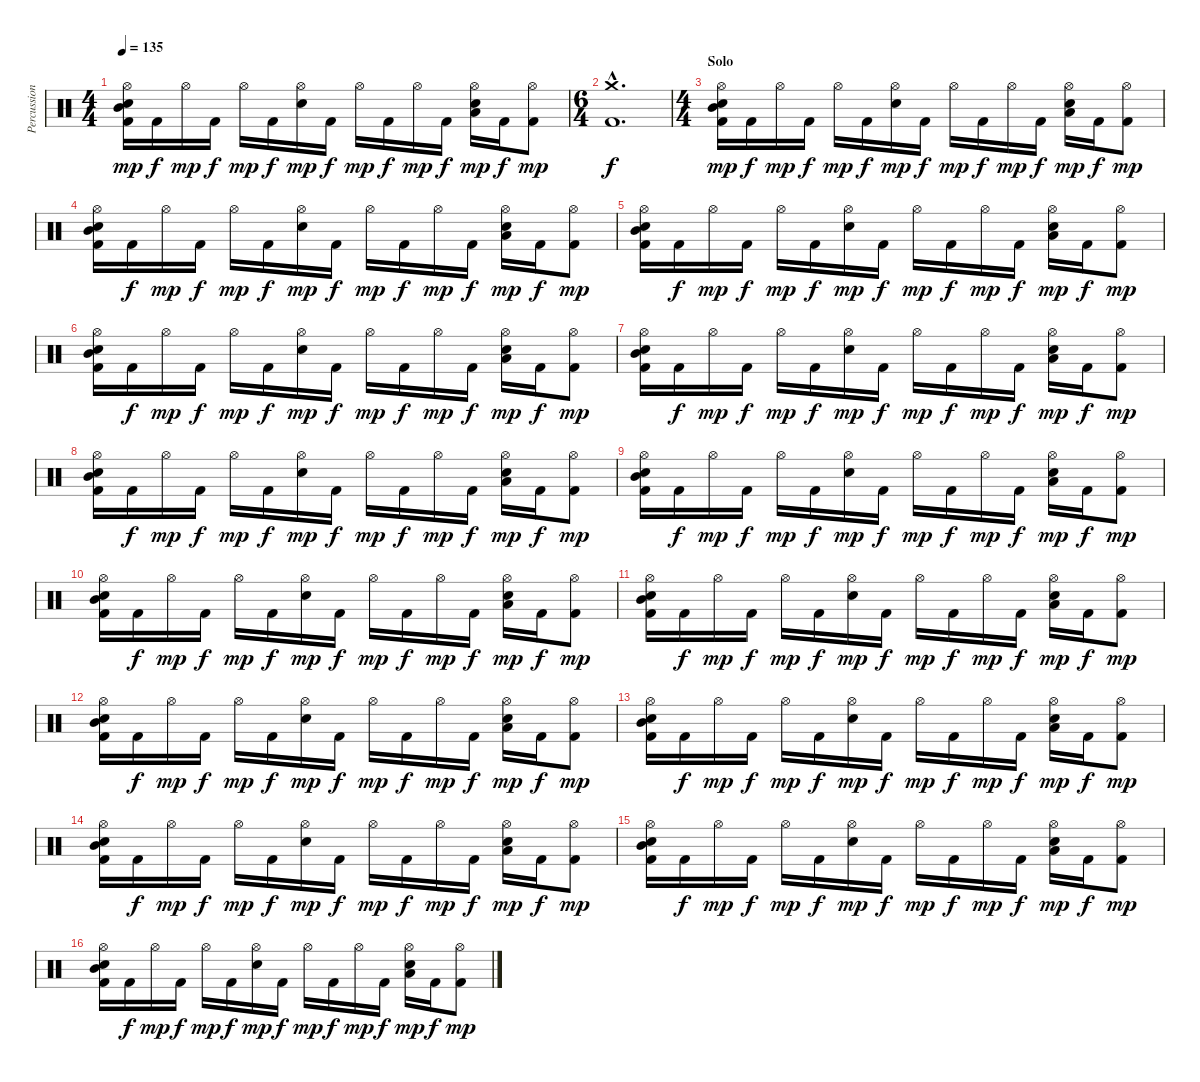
\track ("Percussions" "Percussion") {instrument percussion}
\staff {score}
\articulation defaults
\ts (4 4)
\tempo 135
\clef neutral
\ks c
("Hi-Hat (open)" "Electric Snare (hit)" "Mid Tom (hit)" "Kick (hit) 2").16{dy mp} "Kick (hit) 2".16{dy f} "Hi-Hat (open)".16{dy mp} "Kick (hit) 2".16{dy f} "Hi-Hat (open)".16{dy mp} "Kick (hit) 2".16{dy f} ("Hi-Hat (open)" "Electric Snare (hit)").16{dy mp} "Kick (hit) 2".16{dy f} "Hi-Hat (open)".16{dy mp} "Kick (hit) 2".16{dy f} "Hi-Hat (open)".16{dy mp} "Kick (hit) 2".16{dy f} ("Hi-Hat (open)" "Electric Snare (hit)" "Low Tom (hit)").16{dy mp} "Kick (hit) 2".16{dy f} ("Hi-Hat (open)" "Kick (hit) 2").8{dy mp} |
\ts (6 4)
("Crash medium (hit)"{hac} "Kick (hit) 2"{hac}).1{d dy f} |
\ts (4 4)
\section ("" "Solo")
("Hi-Hat (open)" "Electric Snare (hit)" "Mid Tom (hit)" "Kick (hit) 2").16{dy mp} "Kick (hit) 2".16{dy f} "Hi-Hat (open)".16{dy mp} "Kick (hit) 2".16{dy f} "Hi-Hat (open)".16{dy mp} "Kick (hit) 2".16{dy f} ("Hi-Hat (open)" "Electric Snare (hit)").16{dy mp} "Kick (hit) 2".16{dy f} "Hi-Hat (open)".16{dy mp} "Kick (hit) 2".16{dy f} "Hi-Hat (open)".16{dy mp} "Kick (hit) 2".16{dy f} ("Hi-Hat (open)" "Electric Snare (hit)" "Low Tom (hit)").16{dy mp} "Kick (hit) 2".16{dy f} ("Hi-Hat (open)" "Kick (hit) 2").8{dy mp} |
("Hi-Hat (open)" "Electric Snare (hit)" "Mid Tom (hit)" "Kick (hit) 2").16 "Kick (hit) 2".16{dy f} "Hi-Hat (open)".16{dy mp} "Kick (hit) 2".16{dy f} "Hi-Hat (open)".16{dy mp} "Kick (hit) 2".16{dy f} ("Hi-Hat (open)" "Electric Snare (hit)").16{dy mp} "Kick (hit) 2".16{dy f} "Hi-Hat (open)".16{dy mp} "Kick (hit) 2".16{dy f} "Hi-Hat (open)".16{dy mp} "Kick (hit) 2".16{dy f} ("Hi-Hat (open)" "Electric Snare (hit)" "Low Tom (hit)").16{dy mp} "Kick (hit) 2".16{dy f} ("Hi-Hat (open)" "Kick (hit) 2").8{dy mp} |
("Hi-Hat (open)" "Electric Snare (hit)" "Mid Tom (hit)" "Kick (hit) 2").16 "Kick (hit) 2".16{dy f} "Hi-Hat (open)".16{dy mp} "Kick (hit) 2".16{dy f} "Hi-Hat (open)".16{dy mp} "Kick (hit) 2".16{dy f} ("Hi-Hat (open)" "Electric Snare (hit)").16{dy mp} "Kick (hit) 2".16{dy f} "Hi-Hat (open)".16{dy mp} "Kick (hit) 2".16{dy f} "Hi-Hat (open)".16{dy mp} "Kick (hit) 2".16{dy f} ("Hi-Hat (open)" "Electric Snare (hit)" "Low Tom (hit)").16{dy mp} "Kick (hit) 2".16{dy f} ("Hi-Hat (open)" "Kick (hit) 2").8{dy mp} |
("Hi-Hat (open)" "Electric Snare (hit)" "Mid Tom (hit)" "Kick (hit) 2").16 "Kick (hit) 2".16{dy f} "Hi-Hat (open)".16{dy mp} "Kick (hit) 2".16{dy f} "Hi-Hat (open)".16{dy mp} "Kick (hit) 2".16{dy f} ("Hi-Hat (open)" "Electric Snare (hit)").16{dy mp} "Kick (hit) 2".16{dy f} "Hi-Hat (open)".16{dy mp} "Kick (hit) 2".16{dy f} "Hi-Hat (open)".16{dy mp} "Kick (hit) 2".16{dy f} ("Hi-Hat (open)" "Electric Snare (hit)" "Low Tom (hit)").16{dy mp} "Kick (hit) 2".16{dy f} ("Hi-Hat (open)" "Kick (hit) 2").8{dy mp} |
("Hi-Hat (open)" "Electric Snare (hit)" "Mid Tom (hit)" "Kick (hit) 2").16 "Kick (hit) 2".16{dy f} "Hi-Hat (open)".16{dy mp} "Kick (hit) 2".16{dy f} "Hi-Hat (open)".16{dy mp} "Kick (hit) 2".16{dy f} ("Hi-Hat (open)" "Electric Snare (hit)").16{dy mp} "Kick (hit) 2".16{dy f} "Hi-Hat (open)".16{dy mp} "Kick (hit) 2".16{dy f} "Hi-Hat (open)".16{dy mp} "Kick (hit) 2".16{dy f} ("Hi-Hat (open)" "Electric Snare (hit)" "Low Tom (hit)").16{dy mp} "Kick (hit) 2".16{dy f} ("Hi-Hat (open)" "Kick (hit) 2").8{dy mp} |
("Hi-Hat (open)" "Electric Snare (hit)" "Mid Tom (hit)" "Kick (hit) 2").16 "Kick (hit) 2".16{dy f} "Hi-Hat (open)".16{dy mp} "Kick (hit) 2".16{dy f} "Hi-Hat (open)".16{dy mp} "Kick (hit) 2".16{dy f} ("Hi-Hat (open)" "Electric Snare (hit)").16{dy mp} "Kick (hit) 2".16{dy f} "Hi-Hat (open)".16{dy mp} "Kick (hit) 2".16{dy f} "Hi-Hat (open)".16{dy mp} "Kick (hit) 2".16{dy f} ("Hi-Hat (open)" "Electric Snare (hit)" "Low Tom (hit)").16{dy mp} "Kick (hit) 2".16{dy f} ("Hi-Hat (open)" "Kick (hit) 2").8{dy mp} |
("Hi-Hat (open)" "Electric Snare (hit)" "Mid Tom (hit)" "Kick (hit) 2").16 "Kick (hit) 2".16{dy f} "Hi-Hat (open)".16{dy mp} "Kick (hit) 2".16{dy f} "Hi-Hat (open)".16{dy mp} "Kick (hit) 2".16{dy f} ("Hi-Hat (open)" "Electric Snare (hit)").16{dy mp} "Kick (hit) 2".16{dy f} "Hi-Hat (open)".16{dy mp} "Kick (hit) 2".16{dy f} "Hi-Hat (open)".16{dy mp} "Kick (hit) 2".16{dy f} ("Hi-Hat (open)" "Electric Snare (hit)" "Low Tom (hit)").16{dy mp} "Kick (hit) 2".16{dy f} ("Hi-Hat (open)" "Kick (hit) 2").8{dy mp} |
("Hi-Hat (open)" "Electric Snare (hit)" "Mid Tom (hit)" "Kick (hit) 2").16 "Kick (hit) 2".16{dy f} "Hi-Hat (open)".16{dy mp} "Kick (hit) 2".16{dy f} "Hi-Hat (open)".16{dy mp} "Kick (hit) 2".16{dy f} ("Hi-Hat (open)" "Electric Snare (hit)").16{dy mp} "Kick (hit) 2".16{dy f} "Hi-Hat (open)".16{dy mp} "Kick (hit) 2".16{dy f} "Hi-Hat (open)".16{dy mp} "Kick (hit) 2".16{dy f} ("Hi-Hat (open)" "Electric Snare (hit)" "Low Tom (hit)").16{dy mp} "Kick (hit) 2".16{dy f} ("Hi-Hat (open)" "Kick (hit) 2").8{dy mp} |
("Hi-Hat (open)" "Electric Snare (hit)" "Mid Tom (hit)" "Kick (hit) 2").16 "Kick (hit) 2".16{dy f} "Hi-Hat (open)".16{dy mp} "Kick (hit) 2".16{dy f} "Hi-Hat (open)".16{dy mp} "Kick (hit) 2".16{dy f} ("Hi-Hat (open)" "Electric Snare (hit)").16{dy mp} "Kick (hit) 2".16{dy f} "Hi-Hat (open)".16{dy mp} "Kick (hit) 2".16{dy f} "Hi-Hat (open)".16{dy mp} "Kick (hit) 2".16{dy f} ("Hi-Hat (open)" "Electric Snare (hit)" "Low Tom (hit)").16{dy mp} "Kick (hit) 2".16{dy f} ("Hi-Hat (open)" "Kick (hit) 2").8{dy mp} |
("Hi-Hat (open)" "Electric Snare (hit)" "Mid Tom (hit)" "Kick (hit) 2").16 "Kick (hit) 2".16{dy f} "Hi-Hat (open)".16{dy mp} "Kick (hit) 2".16{dy f} "Hi-Hat (open)".16{dy mp} "Kick (hit) 2".16{dy f} ("Hi-Hat (open)" "Electric Snare (hit)").16{dy mp} "Kick (hit) 2".16{dy f} "Hi-Hat (open)".16{dy mp} "Kick (hit) 2".16{dy f} "Hi-Hat (open)".16{dy mp} "Kick (hit) 2".16{dy f} ("Hi-Hat (open)" "Electric Snare (hit)" "Low Tom (hit)").16{dy mp} "Kick (hit) 2".16{dy f} ("Hi-Hat (open)" "Kick (hit) 2").8{dy mp} |
("Hi-Hat (open)" "Electric Snare (hit)" "Mid Tom (hit)" "Kick (hit) 2").16 "Kick (hit) 2".16{dy f} "Hi-Hat (open)".16{dy mp} "Kick (hit) 2".16{dy f} "Hi-Hat (open)".16{dy mp} "Kick (hit) 2".16{dy f} ("Hi-Hat (open)" "Electric Snare (hit)").16{dy mp} "Kick (hit) 2".16{dy f} "Hi-Hat (open)".16{dy mp} "Kick (hit) 2".16{dy f} "Hi-Hat (open)".16{dy mp} "Kick (hit) 2".16{dy f} ("Hi-Hat (open)" "Electric Snare (hit)" "Low Tom (hit)").16{dy mp} "Kick (hit) 2".16{dy f} ("Hi-Hat (open)" "Kick (hit) 2").8{dy mp} |
("Hi-Hat (open)" "Electric Snare (hit)" "Mid Tom (hit)" "Kick (hit) 2").16 "Kick (hit) 2".16{dy f} "Hi-Hat (open)".16{dy mp} "Kick (hit) 2".16{dy f} "Hi-Hat (open)".16{dy mp} "Kick (hit) 2".16{dy f} ("Hi-Hat (open)" "Electric Snare (hit)").16{dy mp} "Kick (hit) 2".16{dy f} "Hi-Hat (open)".16{dy mp} "Kick (hit) 2".16{dy f} "Hi-Hat (open)".16{dy mp} "Kick (hit) 2".16{dy f} ("Hi-Hat (open)" "Electric Snare (hit)" "Low Tom (hit)").16{dy mp} "Kick (hit) 2".16{dy f} ("Hi-Hat (open)" "Kick (hit) 2").8{dy mp} |
("Hi-Hat (open)" "Electric Snare (hit)" "Mid Tom (hit)" "Kick (hit) 2").16 "Kick (hit) 2".16{dy f} "Hi-Hat (open)".16{dy mp} "Kick (hit) 2".16{dy f} "Hi-Hat (open)".16{dy mp} "Kick (hit) 2".16{dy f} ("Hi-Hat (open)" "Electric Snare (hit)").16{dy mp} "Kick (hit) 2".16{dy f} "Hi-Hat (open)".16{dy mp} "Kick (hit) 2".16{dy f} "Hi-Hat (open)".16{dy mp} "Kick (hit) 2".16{dy f} ("Hi-Hat (open)" "Electric Snare (hit)" "Low Tom (hit)").16{dy mp} "Kick (hit) 2".16{dy f} ("Hi-Hat (open)" "Kick (hit) 2").8{dy mp} |
("Hi-Hat (open)" "Electric Snare (hit)" "Mid Tom (hit)" "Kick (hit) 2").16 "Kick (hit) 2".16{dy f} "Hi-Hat (open)".16{dy mp} "Kick (hit) 2".16{dy f} "Hi-Hat (open)".16{dy mp} "Kick (hit) 2".16{dy f} ("Hi-Hat (open)" "Electric Snare (hit)").16{dy mp} "Kick (hit) 2".16{dy f} "Hi-Hat (open)".16{dy mp} "Kick (hit) 2".16{dy f} "Hi-Hat (open)".16{dy mp} "Kick (hit) 2".16{dy f} ("Hi-Hat (open)" "Electric Snare (hit)" "Low Tom (hit)").16{dy mp} "Kick (hit) 2".16{dy f} ("Hi-Hat (open)" "Kick (hit) 2").8{dy mp}
